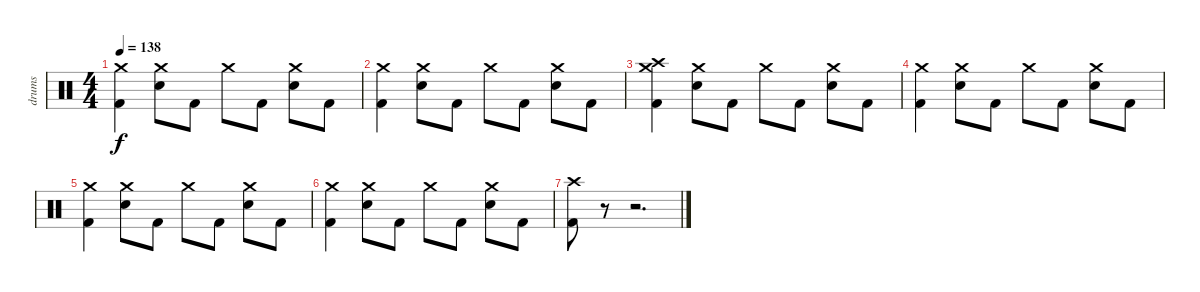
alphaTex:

\track ("drums" "drums") {instrument percussion}
\staff {score}
\articulation defaults
\ts (4 4)
\tempo 138
\clef neutral
\ks c
("Crash medium (hit)" "Kick (hit) 2").4{dy f} ("Crash medium (hit)" "Electric Snare (hit)").8 "Kick (hit) 2".8 "Crash medium (hit)".8 "Kick (hit) 2".8 ("Crash medium (hit)" "Electric Snare (hit)").8 "Kick (hit) 2".8 |
("Crash medium (hit)" "Kick (hit) 2").4 ("Crash medium (hit)" "Electric Snare (hit)").8 "Kick (hit) 2".8 "Crash medium (hit)".8 "Kick (hit) 2".8 ("Crash medium (hit)" "Electric Snare (hit)").8 "Kick (hit) 2".8 |
("Crash high (hit)" "Crash medium (hit)" "Kick (hit) 2").4 ("Crash medium (hit)" "Electric Snare (hit)").8 "Kick (hit) 2".8 "Crash medium (hit)".8 "Kick (hit) 2".8 ("Crash medium (hit)" "Electric Snare (hit)").8 "Kick (hit) 2".8 |
("Crash medium (hit)" "Kick (hit) 2").4 ("Crash medium (hit)" "Electric Snare (hit)").8 "Kick (hit) 2".8 "Crash medium (hit)".8 "Kick (hit) 2".8 ("Crash medium (hit)" "Electric Snare (hit)").8 "Kick (hit) 2".8 |
("Crash medium (hit)" "Kick (hit) 2").4 ("Crash medium (hit)" "Electric Snare (hit)").8 "Kick (hit) 2".8 "Crash medium (hit)".8 "Kick (hit) 2".8 ("Crash medium (hit)" "Electric Snare (hit)").8 "Kick (hit) 2".8 |
("Crash medium (hit)" "Kick (hit) 2").4 ("Crash medium (hit)" "Electric Snare (hit)").8 "Kick (hit) 2".8 "Crash medium (hit)".8 "Kick (hit) 2".8 ("Crash medium (hit)" "Electric Snare (hit)").8 "Kick (hit) 2".8 |
("Crash high (hit)" "Kick (hit) 2").8 r.8 r.2{d}
